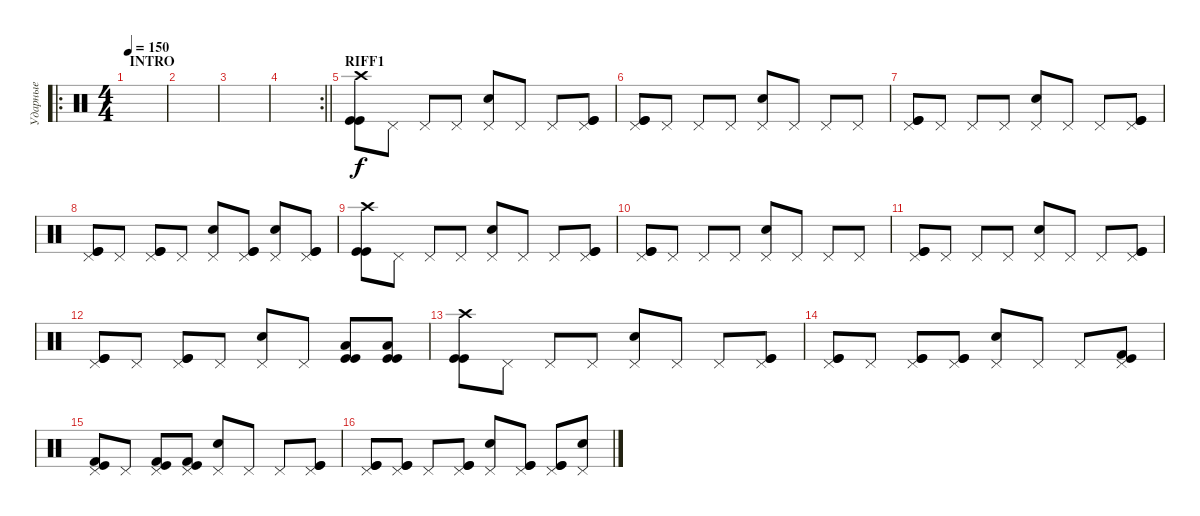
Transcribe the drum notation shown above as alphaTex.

\track ("Ударные" "Ударные") {instrument percussion}
\staff {score}
\articulation defaults
\ro
\ts (4 4)
\section ("" "INTRO")
\tempo 150
\clef neutral
\ks c
|
|
|
\rc 2
\barLineRight lightlight
|
\section ("" "RIFF1")
("Crash high (hit)" "Kick (hit)" "Kick (hit)").8 "Pedal Hi-Hat (hit)".8 "Pedal Hi-Hat (hit)".8 "Pedal Hi-Hat (hit)".8 ("Pedal Hi-Hat (hit)" "Electric Snare (hit)").8 "Pedal Hi-Hat (hit)".8 "Pedal Hi-Hat (hit)".8 ("Pedal Hi-Hat (hit)" "Kick (hit)" "Kick (hit)").8 |
("Pedal Hi-Hat (hit)" "Kick (hit)" "Kick (hit)").8 "Pedal Hi-Hat (hit)".8 "Pedal Hi-Hat (hit)".8 "Pedal Hi-Hat (hit)".8 ("Pedal Hi-Hat (hit)" "Electric Snare (hit)").8 "Pedal Hi-Hat (hit)".8 "Pedal Hi-Hat (hit)".8 "Pedal Hi-Hat (hit)".8 |
("Pedal Hi-Hat (hit)" "Kick (hit)" "Kick (hit)").8 "Pedal Hi-Hat (hit)".8 "Pedal Hi-Hat (hit)".8 "Pedal Hi-Hat (hit)".8 ("Pedal Hi-Hat (hit)" "Electric Snare (hit)").8 "Pedal Hi-Hat (hit)".8 "Pedal Hi-Hat (hit)".8 ("Pedal Hi-Hat (hit)" "Kick (hit)" "Kick (hit)").8 |
("Pedal Hi-Hat (hit)" "Kick (hit)" "Kick (hit)").8 "Pedal Hi-Hat (hit)".8 ("Pedal Hi-Hat (hit)" "Kick (hit)" "Kick (hit)").8 "Pedal Hi-Hat (hit)".8 ("Pedal Hi-Hat (hit)" "Electric Snare (hit)").8 ("Pedal Hi-Hat (hit)" "Kick (hit)" "Kick (hit)").8 ("Pedal Hi-Hat (hit)" "Electric Snare (hit)").8 ("Pedal Hi-Hat (hit)" "Kick (hit)" "Kick (hit)").8 |
("Crash high (hit)" "Kick (hit)" "Kick (hit)").8 "Pedal Hi-Hat (hit)".8 "Pedal Hi-Hat (hit)".8 "Pedal Hi-Hat (hit)".8 ("Pedal Hi-Hat (hit)" "Electric Snare (hit)").8 "Pedal Hi-Hat (hit)".8 "Pedal Hi-Hat (hit)".8 ("Pedal Hi-Hat (hit)" "Kick (hit)" "Kick (hit)").8 |
("Pedal Hi-Hat (hit)" "Kick (hit)" "Kick (hit)").8 "Pedal Hi-Hat (hit)".8 "Pedal Hi-Hat (hit)".8 "Pedal Hi-Hat (hit)".8 ("Pedal Hi-Hat (hit)" "Electric Snare (hit)").8 "Pedal Hi-Hat (hit)".8 "Pedal Hi-Hat (hit)".8 "Pedal Hi-Hat (hit)".8 |
("Pedal Hi-Hat (hit)" "Kick (hit)" "Kick (hit)").8 "Pedal Hi-Hat (hit)".8 "Pedal Hi-Hat (hit)".8 "Pedal Hi-Hat (hit)".8 ("Pedal Hi-Hat (hit)" "Electric Snare (hit)").8 "Pedal Hi-Hat (hit)".8 "Pedal Hi-Hat (hit)".8 ("Pedal Hi-Hat (hit)" "Kick (hit)" "Kick (hit)").8 |
("Pedal Hi-Hat (hit)" "Kick (hit)" "Kick (hit)").8 "Pedal Hi-Hat (hit)".8 ("Pedal Hi-Hat (hit)" "Kick (hit)" "Kick (hit)").8 "Pedal Hi-Hat (hit)".8 ("Pedal Hi-Hat (hit)" "Electric Snare (hit)").8 "Pedal Hi-Hat (hit)".8 ("Low Tom (hit)" "Kick (hit)" "Kick (hit)").8 ("Low Tom (hit)" "Kick (hit)" "Kick (hit)").8 |
("Crash high (hit)" "Kick (hit)" "Kick (hit)").8 "Pedal Hi-Hat (hit)".8 "Pedal Hi-Hat (hit)".8 "Pedal Hi-Hat (hit)".8 ("Pedal Hi-Hat (hit)" "Electric Snare (hit)").8 "Pedal Hi-Hat (hit)".8 "Pedal Hi-Hat (hit)".8 ("Pedal Hi-Hat (hit)" "Kick (hit)" "Kick (hit)").8 |
("Pedal Hi-Hat (hit)" "Kick (hit)" "Kick (hit)").8 "Pedal Hi-Hat (hit)".8 ("Pedal Hi-Hat (hit)" "Kick (hit)" "Kick (hit)").8 ("Pedal Hi-Hat (hit)" "Kick (hit)" "Kick (hit)").8 ("Pedal Hi-Hat (hit)" "Electric Snare (hit)").8 "Pedal Hi-Hat (hit)".8 "Pedal Hi-Hat (hit)".8 ("Pedal Hi-Hat (hit)" "Kick (hit)" "Kick (hit) 2").8 |
("Pedal Hi-Hat (hit)" "Kick (hit)" "Kick (hit) 2").8 "Pedal Hi-Hat (hit)".8 ("Pedal Hi-Hat (hit)" "Kick (hit)" "Kick (hit) 2").8 ("Pedal Hi-Hat (hit)" "Kick (hit)" "Kick (hit) 2").8 ("Pedal Hi-Hat (hit)" "Electric Snare (hit)").8 "Pedal Hi-Hat (hit)".8 "Pedal Hi-Hat (hit)".8 ("Pedal Hi-Hat (hit)" "Kick (hit)" "Kick (hit)").8 |
("Pedal Hi-Hat (hit)" "Kick (hit)" "Kick (hit)").8 ("Pedal Hi-Hat (hit)" "Kick (hit)" "Kick (hit)").8 "Pedal Hi-Hat (hit)".8 ("Pedal Hi-Hat (hit)" "Kick (hit)" "Kick (hit)").8 ("Pedal Hi-Hat (hit)" "Electric Snare (hit)").8 ("Pedal Hi-Hat (hit)" "Kick (hit)" "Kick (hit)").8 ("Pedal Hi-Hat (hit)" "Kick (hit)" "Kick (hit)").8 ("Pedal Hi-Hat (hit)" "Electric Snare (hit)").8
